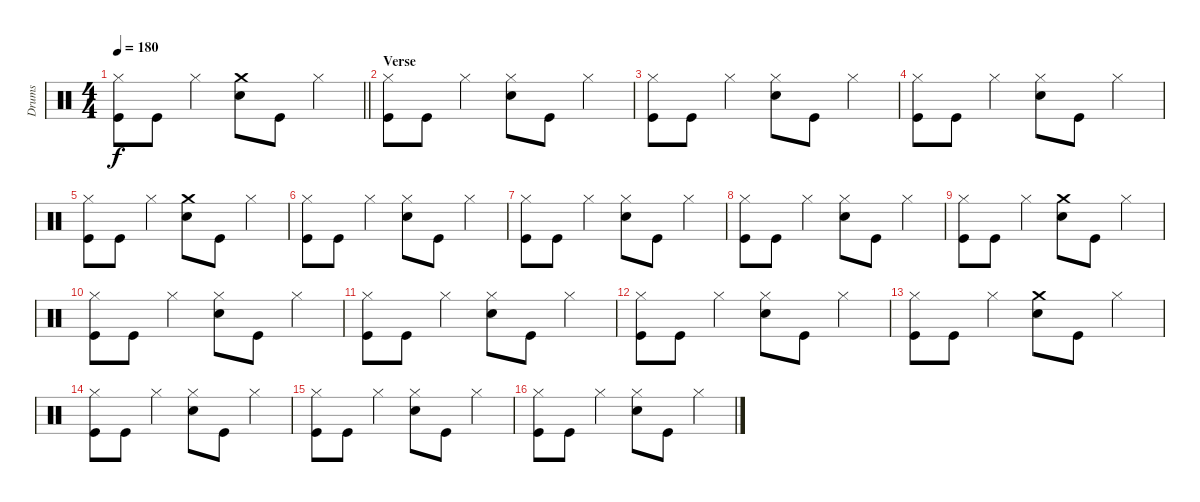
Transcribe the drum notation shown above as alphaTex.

\track ("Drums" "Drums") {instrument percussion}
\staff {score}
\articulation defaults
\ts (4 4)
\tempo 180
\clef neutral
\barLineRight lightlight
\ks c
("Hi-Hat (closed)" "Kick (hit)").8{dy f} "Kick (hit)".8 "Hi-Hat (closed)".4 ("Crash medium (hit)" "Snare (hit) 2").8 "Kick (hit)".8 "Hi-Hat (closed)".4 |
\section ("" "Verse")
("Hi-Hat (closed)" "Kick (hit)").8 "Kick (hit)".8 "Hi-Hat (closed)".4 ("Hi-Hat (closed)" "Snare (hit) 2").8 "Kick (hit)".8 "Hi-Hat (closed)".4 |
("Hi-Hat (closed)" "Kick (hit)").8 "Kick (hit)".8 "Hi-Hat (closed)".4 ("Hi-Hat (closed)" "Snare (hit) 2").8 "Kick (hit)".8 "Hi-Hat (closed)".4 |
("Hi-Hat (closed)" "Kick (hit)").8 "Kick (hit)".8 "Hi-Hat (closed)".4 ("Hi-Hat (closed)" "Snare (hit) 2").8 "Kick (hit)".8 "Hi-Hat (closed)".4 |
("Hi-Hat (closed)" "Kick (hit)").8 "Kick (hit)".8 "Hi-Hat (closed)".4 ("Crash medium (hit)" "Snare (hit) 2").8 "Kick (hit)".8 "Hi-Hat (closed)".4 |
("Hi-Hat (closed)" "Kick (hit)").8 "Kick (hit)".8 "Hi-Hat (closed)".4 ("Hi-Hat (closed)" "Snare (hit) 2").8 "Kick (hit)".8 "Hi-Hat (closed)".4 |
("Hi-Hat (closed)" "Kick (hit)").8 "Kick (hit)".8 "Hi-Hat (closed)".4 ("Hi-Hat (closed)" "Snare (hit) 2").8 "Kick (hit)".8 "Hi-Hat (closed)".4 |
("Hi-Hat (closed)" "Kick (hit)").8 "Kick (hit)".8 "Hi-Hat (closed)".4 ("Hi-Hat (closed)" "Snare (hit) 2").8 "Kick (hit)".8 "Hi-Hat (closed)".4 |
("Hi-Hat (closed)" "Kick (hit)").8 "Kick (hit)".8 "Hi-Hat (closed)".4 ("Crash medium (hit)" "Snare (hit) 2").8 "Kick (hit)".8 "Hi-Hat (closed)".4 |
("Hi-Hat (closed)" "Kick (hit)").8 "Kick (hit)".8 "Hi-Hat (closed)".4 ("Hi-Hat (closed)" "Snare (hit) 2").8 "Kick (hit)".8 "Hi-Hat (closed)".4 |
("Hi-Hat (closed)" "Kick (hit)").8 "Kick (hit)".8 "Hi-Hat (closed)".4 ("Hi-Hat (closed)" "Snare (hit) 2").8 "Kick (hit)".8 "Hi-Hat (closed)".4 |
("Hi-Hat (closed)" "Kick (hit)").8 "Kick (hit)".8 "Hi-Hat (closed)".4 ("Hi-Hat (closed)" "Snare (hit) 2").8 "Kick (hit)".8 "Hi-Hat (closed)".4 |
("Hi-Hat (closed)" "Kick (hit)").8 "Kick (hit)".8 "Hi-Hat (closed)".4 ("Crash medium (hit)" "Snare (hit) 2").8 "Kick (hit)".8 "Hi-Hat (closed)".4 |
("Hi-Hat (closed)" "Kick (hit)").8 "Kick (hit)".8 "Hi-Hat (closed)".4 ("Hi-Hat (closed)" "Snare (hit) 2").8 "Kick (hit)".8 "Hi-Hat (closed)".4 |
("Hi-Hat (closed)" "Kick (hit)").8 "Kick (hit)".8 "Hi-Hat (closed)".4 ("Hi-Hat (closed)" "Snare (hit) 2").8 "Kick (hit)".8 "Hi-Hat (closed)".4 |
("Hi-Hat (closed)" "Kick (hit)").8 "Kick (hit)".8 "Hi-Hat (closed)".4 ("Hi-Hat (closed)" "Snare (hit) 2").8 "Kick (hit)".8 "Hi-Hat (closed)".4
